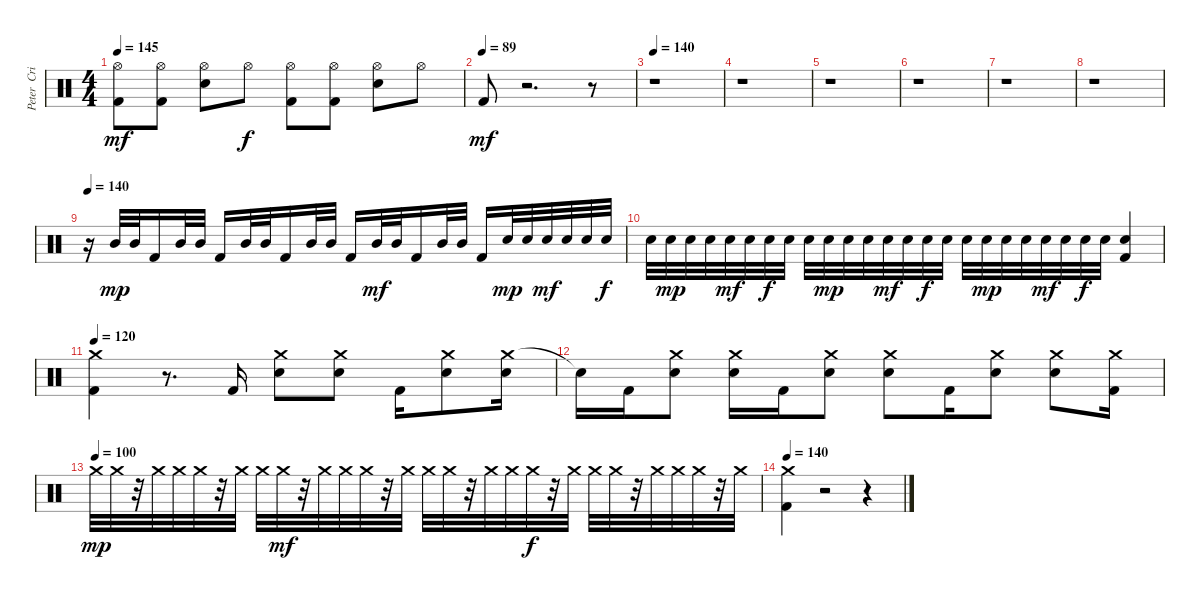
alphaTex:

\track ("Peter  Criss [Drums]" "Peter  Cri") {instrument percussion}
\staff {score}
\articulation defaults
\ts (4 4)
\tempo 145
\clef neutral
\ks c
("Hi-Hat (open)" "Kick (hit) 2").8{dy mf} ("Hi-Hat (open)" "Kick (hit) 2").8 ("Hi-Hat (open)" "Electric Snare (hit)").8 "Hi-Hat (open)".8{dy f} ("Hi-Hat (open)" "Kick (hit) 2").8 ("Hi-Hat (open)" "Kick (hit) 2").8 ("Hi-Hat (open)" "Electric Snare (hit)").8 "Hi-Hat (open)".8 |
\tempo (89)
"Kick (hit) 2".8{dy mf} r.2{d} r.8 |
\tempo 140
r.1 |
r.1 |
r.1 |
r.1 |
r.1 |
r.1 |
\tempo 140
r.16 "Mid Tom (hit)".32{dy mp} "Mid Tom (hit)".32 "Kick (hit) 2".16 "Mid Tom (hit)".32 "Mid Tom (hit)".32 "Kick (hit) 2".16 "Mid Tom (hit)".32 "Mid Tom (hit)".32 "Kick (hit) 2".16 "Mid Tom (hit)".32 "Mid Tom (hit)".32 "Kick (hit) 2".16 "Mid Tom (hit)".32{dy mf} "Mid Tom (hit)".32 "Kick (hit) 2".16 "Mid Tom (hit)".32 "Mid Tom (hit)".32 "Kick (hit) 2".16 "Electric Snare (hit)".32{dy mp} "Electric Snare (hit)".32 "Electric Snare (hit)".32{dy mf} "Electric Snare (hit)".32 "Electric Snare (hit)".32 "Electric Snare (hit)".32{dy f} |
"Electric Snare (hit)".32 "Electric Snare (hit)".32{dy mp} "Electric Snare (hit)".32 "Electric Snare (hit)".32 "Electric Snare (hit)".32{dy mf} "Electric Snare (hit)".32 "Electric Snare (hit)".32{dy f} "Electric Snare (hit)".32 "Electric Snare (hit)".32 "Electric Snare (hit)".32{dy mp} "Electric Snare (hit)".32 "Electric Snare (hit)".32 "Electric Snare (hit)".32{dy mf} "Electric Snare (hit)".32 "Electric Snare (hit)".32{dy f} "Electric Snare (hit)".32 "Electric Snare (hit)".32 "Electric Snare (hit)".32{dy mp} "Electric Snare (hit)".32 "Electric Snare (hit)".32 "Electric Snare (hit)".32{dy mf} "Electric Snare (hit)".32 "Electric Snare (hit)".32{dy f} "Electric Snare (hit)".32 ("Kick (hit) 2" "Electric Snare (hit)").4 |
\tempo 120
("Crash medium (hit)" "Kick (hit) 2").4 r.8{d} "Kick (hit) 2".16 ("Crash medium (hit)" "Electric Snare (hit)").8 ("Crash medium (hit)" "Electric Snare (hit)").8 "Kick (hit) 2".16 ("Crash medium (hit)" "Electric Snare (hit)").8 ("Crash medium (hit)" "Electric Snare (hit)").16 |
"Snare (hit)"{t}.16 "Kick (hit) 2".16 ("Crash medium (hit)" "Electric Snare (hit)").8 ("Crash medium (hit)" "Electric Snare (hit)").16 "Kick (hit) 2".16 ("Crash medium (hit)" "Electric Snare (hit)").8 ("Crash medium (hit)" "Electric Snare (hit)").8 "Kick (hit) 2".16 ("Crash medium (hit)" "Electric Snare (hit)").8 ("Crash medium (hit)" "Electric Snare (hit)").8 ("Crash medium (hit)" "Kick (hit) 2").16 |
\tempo (100)
"Crash medium (hit)".32{dy mp} "Crash medium (hit)".32 r.32 "Crash medium (hit)".32 "Crash medium (hit)".32 "Crash medium (hit)".32 r.32 "Crash medium (hit)".32 "Crash medium (hit)".32 "Crash medium (hit)".32{dy mf} r.32 "Crash medium (hit)".32 "Crash medium (hit)".32 "Crash medium (hit)".32 r.32 "Crash medium (hit)".32 "Crash medium (hit)".32 "Crash medium (hit)".32 r.32 "Crash medium (hit)".32 "Crash medium (hit)".32 "Crash medium (hit)".32{dy f} r.32 "Crash medium (hit)".32 "Crash medium (hit)".32 "Crash medium (hit)".32 r.32 "Crash medium (hit)".32 "Crash medium (hit)".32 "Crash medium (hit)".32 r.32 "Crash medium (hit)".32 |
\tempo 140
("Crash medium (hit)" "Kick (hit) 2").4 r.2 r.4
